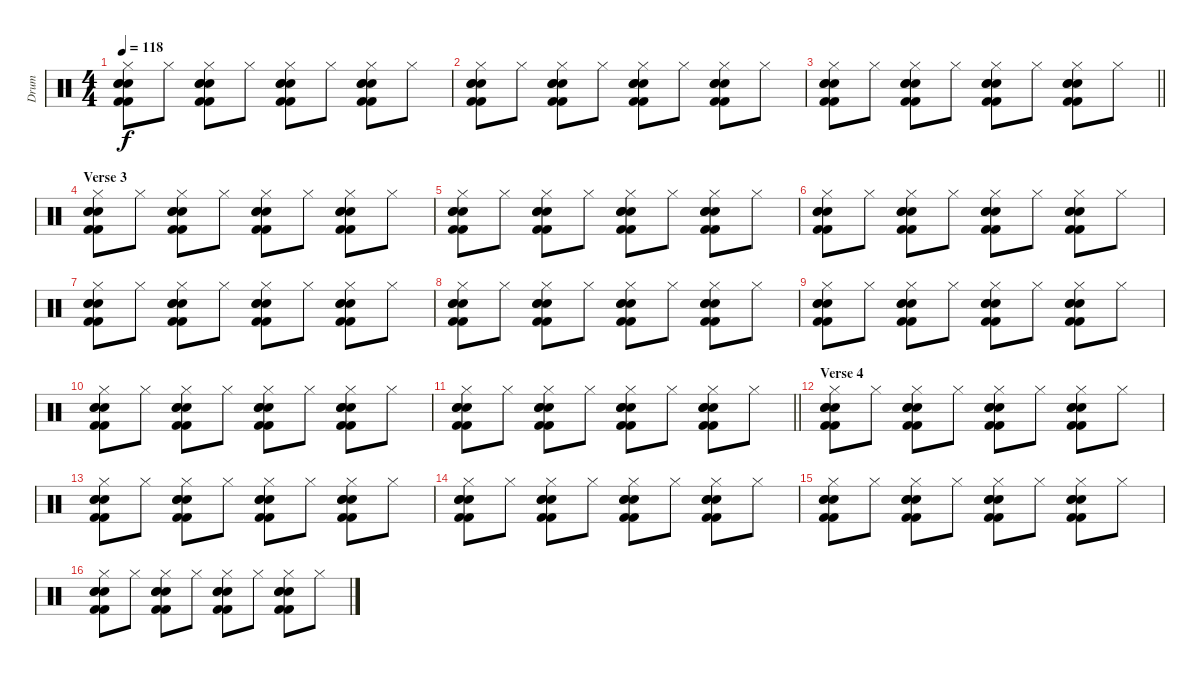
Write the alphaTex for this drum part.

\track ("Drum" "Drum") {instrument percussion}
\staff {score}
\articulation defaults
\ts (4 4)
\tempo 118
\clef neutral
\ks c
("Hi-Hat (closed)" "Kick (hit) 2" "Kick (hit) 2" "Snare (hit) 2" "Snare (hit) 2" "Snare (hit) 2").8{dy f} "Hi-Hat (closed)".8 ("Hi-Hat (closed)" "Kick (hit) 2" "Kick (hit) 2" "Snare (hit) 2" "Snare (hit) 2" "Snare (hit) 2").8 "Hi-Hat (closed)".8 ("Hi-Hat (closed)" "Kick (hit) 2" "Kick (hit) 2" "Snare (hit) 2" "Snare (hit) 2" "Snare (hit) 2").8 "Hi-Hat (closed)".8 ("Hi-Hat (closed)" "Kick (hit) 2" "Kick (hit) 2" "Snare (hit) 2" "Snare (hit) 2" "Snare (hit) 2").8 "Hi-Hat (closed)".8 |
("Hi-Hat (closed)" "Kick (hit) 2" "Kick (hit) 2" "Snare (hit) 2" "Snare (hit) 2" "Snare (hit) 2").8 "Hi-Hat (closed)".8 ("Hi-Hat (closed)" "Kick (hit) 2" "Kick (hit) 2" "Snare (hit) 2" "Snare (hit) 2" "Snare (hit) 2").8 "Hi-Hat (closed)".8 ("Hi-Hat (closed)" "Kick (hit) 2" "Kick (hit) 2" "Snare (hit) 2" "Snare (hit) 2" "Snare (hit) 2").8 "Hi-Hat (closed)".8 ("Hi-Hat (closed)" "Kick (hit) 2" "Kick (hit) 2" "Snare (hit) 2" "Snare (hit) 2" "Snare (hit) 2").8 "Hi-Hat (closed)".8 |
\barLineRight lightlight
("Hi-Hat (closed)" "Kick (hit) 2" "Kick (hit) 2" "Snare (hit) 2" "Snare (hit) 2" "Snare (hit) 2").8 "Hi-Hat (closed)".8 ("Hi-Hat (closed)" "Kick (hit) 2" "Kick (hit) 2" "Snare (hit) 2" "Snare (hit) 2" "Snare (hit) 2").8 "Hi-Hat (closed)".8 ("Hi-Hat (closed)" "Kick (hit) 2" "Kick (hit) 2" "Snare (hit) 2" "Snare (hit) 2" "Snare (hit) 2").8 "Hi-Hat (closed)".8 ("Hi-Hat (closed)" "Kick (hit) 2" "Kick (hit) 2" "Snare (hit) 2" "Snare (hit) 2" "Snare (hit) 2").8 "Hi-Hat (closed)".8 |
\section ("" "Verse 3")
("Hi-Hat (closed)" "Kick (hit) 2" "Kick (hit) 2" "Snare (hit) 2" "Snare (hit) 2" "Snare (hit) 2").8 "Hi-Hat (closed)".8 ("Hi-Hat (closed)" "Kick (hit) 2" "Kick (hit) 2" "Snare (hit) 2" "Snare (hit) 2" "Snare (hit) 2").8 "Hi-Hat (closed)".8 ("Hi-Hat (closed)" "Kick (hit) 2" "Kick (hit) 2" "Snare (hit) 2" "Snare (hit) 2" "Snare (hit) 2").8 "Hi-Hat (closed)".8 ("Hi-Hat (closed)" "Kick (hit) 2" "Kick (hit) 2" "Snare (hit) 2" "Snare (hit) 2" "Snare (hit) 2").8 "Hi-Hat (closed)".8 |
("Hi-Hat (closed)" "Kick (hit) 2" "Kick (hit) 2" "Snare (hit) 2" "Snare (hit) 2" "Snare (hit) 2").8 "Hi-Hat (closed)".8 ("Hi-Hat (closed)" "Kick (hit) 2" "Kick (hit) 2" "Snare (hit) 2" "Snare (hit) 2" "Snare (hit) 2").8 "Hi-Hat (closed)".8 ("Hi-Hat (closed)" "Kick (hit) 2" "Kick (hit) 2" "Snare (hit) 2" "Snare (hit) 2" "Snare (hit) 2").8 "Hi-Hat (closed)".8 ("Hi-Hat (closed)" "Kick (hit) 2" "Kick (hit) 2" "Snare (hit) 2" "Snare (hit) 2" "Snare (hit) 2").8 "Hi-Hat (closed)".8 |
("Hi-Hat (closed)" "Kick (hit) 2" "Kick (hit) 2" "Snare (hit) 2" "Snare (hit) 2" "Snare (hit) 2").8 "Hi-Hat (closed)".8 ("Hi-Hat (closed)" "Kick (hit) 2" "Kick (hit) 2" "Snare (hit) 2" "Snare (hit) 2" "Snare (hit) 2").8 "Hi-Hat (closed)".8 ("Hi-Hat (closed)" "Kick (hit) 2" "Kick (hit) 2" "Snare (hit) 2" "Snare (hit) 2" "Snare (hit) 2").8 "Hi-Hat (closed)".8 ("Hi-Hat (closed)" "Kick (hit) 2" "Kick (hit) 2" "Snare (hit) 2" "Snare (hit) 2" "Snare (hit) 2").8 "Hi-Hat (closed)".8 |
("Hi-Hat (closed)" "Kick (hit) 2" "Kick (hit) 2" "Snare (hit) 2" "Snare (hit) 2" "Snare (hit) 2").8 "Hi-Hat (closed)".8 ("Hi-Hat (closed)" "Kick (hit) 2" "Kick (hit) 2" "Snare (hit) 2" "Snare (hit) 2" "Snare (hit) 2").8 "Hi-Hat (closed)".8 ("Hi-Hat (closed)" "Kick (hit) 2" "Kick (hit) 2" "Snare (hit) 2" "Snare (hit) 2" "Snare (hit) 2").8 "Hi-Hat (closed)".8 ("Hi-Hat (closed)" "Kick (hit) 2" "Kick (hit) 2" "Snare (hit) 2" "Snare (hit) 2" "Snare (hit) 2").8 "Hi-Hat (closed)".8 |
("Hi-Hat (closed)" "Kick (hit) 2" "Kick (hit) 2" "Snare (hit) 2" "Snare (hit) 2" "Snare (hit) 2").8 "Hi-Hat (closed)".8 ("Hi-Hat (closed)" "Kick (hit) 2" "Kick (hit) 2" "Snare (hit) 2" "Snare (hit) 2" "Snare (hit) 2").8 "Hi-Hat (closed)".8 ("Hi-Hat (closed)" "Kick (hit) 2" "Kick (hit) 2" "Snare (hit) 2" "Snare (hit) 2" "Snare (hit) 2").8 "Hi-Hat (closed)".8 ("Hi-Hat (closed)" "Kick (hit) 2" "Kick (hit) 2" "Snare (hit) 2" "Snare (hit) 2" "Snare (hit) 2").8 "Hi-Hat (closed)".8 |
("Hi-Hat (closed)" "Kick (hit) 2" "Kick (hit) 2" "Snare (hit) 2" "Snare (hit) 2" "Snare (hit) 2").8 "Hi-Hat (closed)".8 ("Hi-Hat (closed)" "Kick (hit) 2" "Kick (hit) 2" "Snare (hit) 2" "Snare (hit) 2" "Snare (hit) 2").8 "Hi-Hat (closed)".8 ("Hi-Hat (closed)" "Kick (hit) 2" "Kick (hit) 2" "Snare (hit) 2" "Snare (hit) 2" "Snare (hit) 2").8 "Hi-Hat (closed)".8 ("Hi-Hat (closed)" "Kick (hit) 2" "Kick (hit) 2" "Snare (hit) 2" "Snare (hit) 2" "Snare (hit) 2").8 "Hi-Hat (closed)".8 |
("Hi-Hat (closed)" "Kick (hit) 2" "Kick (hit) 2" "Snare (hit) 2" "Snare (hit) 2" "Snare (hit) 2").8 "Hi-Hat (closed)".8 ("Hi-Hat (closed)" "Kick (hit) 2" "Kick (hit) 2" "Snare (hit) 2" "Snare (hit) 2" "Snare (hit) 2").8 "Hi-Hat (closed)".8 ("Hi-Hat (closed)" "Kick (hit) 2" "Kick (hit) 2" "Snare (hit) 2" "Snare (hit) 2" "Snare (hit) 2").8 "Hi-Hat (closed)".8 ("Hi-Hat (closed)" "Kick (hit) 2" "Kick (hit) 2" "Snare (hit) 2" "Snare (hit) 2" "Snare (hit) 2").8 "Hi-Hat (closed)".8 |
\barLineRight lightlight
("Hi-Hat (closed)" "Kick (hit) 2" "Kick (hit) 2" "Snare (hit) 2" "Snare (hit) 2" "Snare (hit) 2").8 "Hi-Hat (closed)".8 ("Hi-Hat (closed)" "Kick (hit) 2" "Kick (hit) 2" "Snare (hit) 2" "Snare (hit) 2" "Snare (hit) 2").8 "Hi-Hat (closed)".8 ("Hi-Hat (closed)" "Kick (hit) 2" "Kick (hit) 2" "Snare (hit) 2" "Snare (hit) 2" "Snare (hit) 2").8 "Hi-Hat (closed)".8 ("Hi-Hat (closed)" "Kick (hit) 2" "Kick (hit) 2" "Snare (hit) 2" "Snare (hit) 2" "Snare (hit) 2").8 "Hi-Hat (closed)".8 |
\section ("" "Verse 4")
("Hi-Hat (closed)" "Kick (hit) 2" "Kick (hit) 2" "Snare (hit) 2" "Snare (hit) 2" "Snare (hit) 2").8 "Hi-Hat (closed)".8 ("Hi-Hat (closed)" "Kick (hit) 2" "Kick (hit) 2" "Snare (hit) 2" "Snare (hit) 2" "Snare (hit) 2").8 "Hi-Hat (closed)".8 ("Hi-Hat (closed)" "Kick (hit) 2" "Kick (hit) 2" "Snare (hit) 2" "Snare (hit) 2" "Snare (hit) 2").8 "Hi-Hat (closed)".8 ("Hi-Hat (closed)" "Kick (hit) 2" "Kick (hit) 2" "Snare (hit) 2" "Snare (hit) 2" "Snare (hit) 2").8 "Hi-Hat (closed)".8 |
("Hi-Hat (closed)" "Kick (hit) 2" "Kick (hit) 2" "Snare (hit) 2" "Snare (hit) 2" "Snare (hit) 2").8 "Hi-Hat (closed)".8 ("Hi-Hat (closed)" "Kick (hit) 2" "Kick (hit) 2" "Snare (hit) 2" "Snare (hit) 2" "Snare (hit) 2").8 "Hi-Hat (closed)".8 ("Hi-Hat (closed)" "Kick (hit) 2" "Kick (hit) 2" "Snare (hit) 2" "Snare (hit) 2" "Snare (hit) 2").8 "Hi-Hat (closed)".8 ("Hi-Hat (closed)" "Kick (hit) 2" "Kick (hit) 2" "Snare (hit) 2" "Snare (hit) 2" "Snare (hit) 2").8 "Hi-Hat (closed)".8 |
("Hi-Hat (closed)" "Kick (hit) 2" "Kick (hit) 2" "Snare (hit) 2" "Snare (hit) 2" "Snare (hit) 2").8 "Hi-Hat (closed)".8 ("Hi-Hat (closed)" "Kick (hit) 2" "Kick (hit) 2" "Snare (hit) 2" "Snare (hit) 2" "Snare (hit) 2").8 "Hi-Hat (closed)".8 ("Hi-Hat (closed)" "Kick (hit) 2" "Kick (hit) 2" "Snare (hit) 2" "Snare (hit) 2" "Snare (hit) 2").8 "Hi-Hat (closed)".8 ("Hi-Hat (closed)" "Kick (hit) 2" "Kick (hit) 2" "Snare (hit) 2" "Snare (hit) 2" "Snare (hit) 2").8 "Hi-Hat (closed)".8 |
("Hi-Hat (closed)" "Kick (hit) 2" "Kick (hit) 2" "Snare (hit) 2" "Snare (hit) 2" "Snare (hit) 2").8 "Hi-Hat (closed)".8 ("Hi-Hat (closed)" "Kick (hit) 2" "Kick (hit) 2" "Snare (hit) 2" "Snare (hit) 2" "Snare (hit) 2").8 "Hi-Hat (closed)".8 ("Hi-Hat (closed)" "Kick (hit) 2" "Kick (hit) 2" "Snare (hit) 2" "Snare (hit) 2" "Snare (hit) 2").8 "Hi-Hat (closed)".8 ("Hi-Hat (closed)" "Kick (hit) 2" "Kick (hit) 2" "Snare (hit) 2" "Snare (hit) 2" "Snare (hit) 2").8 "Hi-Hat (closed)".8 |
("Hi-Hat (closed)" "Kick (hit) 2" "Kick (hit) 2" "Snare (hit) 2" "Snare (hit) 2" "Snare (hit) 2").8 "Hi-Hat (closed)".8 ("Hi-Hat (closed)" "Kick (hit) 2" "Kick (hit) 2" "Snare (hit) 2" "Snare (hit) 2" "Snare (hit) 2").8 "Hi-Hat (closed)".8 ("Hi-Hat (closed)" "Kick (hit) 2" "Kick (hit) 2" "Snare (hit) 2" "Snare (hit) 2" "Snare (hit) 2").8 "Hi-Hat (closed)".8 ("Hi-Hat (closed)" "Kick (hit) 2" "Kick (hit) 2" "Snare (hit) 2" "Snare (hit) 2" "Snare (hit) 2").8 "Hi-Hat (closed)".8
